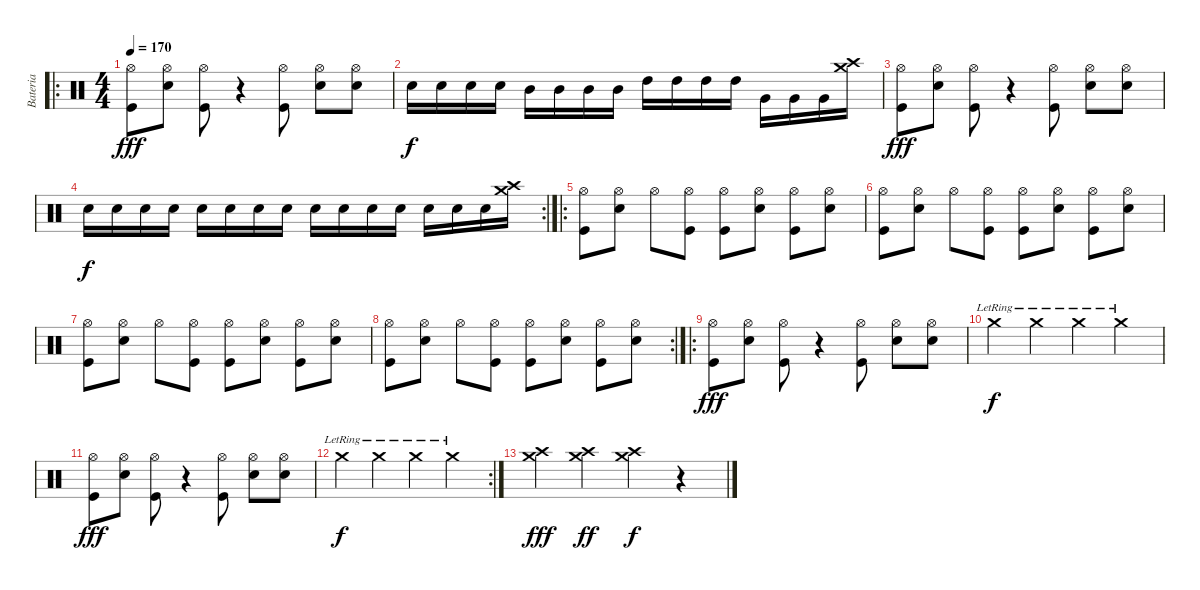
\track ("Bateria" "Bateria") {instrument percussion}
\staff {score}
\articulation defaults
\ro
\ts (4 4)
\tempo 170
\clef neutral
\ks c
("Hi-Hat (open)" "Kick (hit)").8{dy fff} ("Hi-Hat (open)" "Electric Snare (hit)").8 ("Hi-Hat (open)" "Kick (hit)").8 r.4 ("Hi-Hat (open)" "Kick (hit)").8 ("Hi-Hat (open)" "Electric Snare (hit)").8 ("Hi-Hat (open)" "Electric Snare (hit)").8 |
"Electric Snare (hit)".16{dy f} "Electric Snare (hit)".16 "Electric Snare (hit)".16 "Electric Snare (hit)".16 "Mid Tom (hit)".16 "Mid Tom (hit)".16 "Mid Tom (hit)".16 "Mid Tom (hit)".16 "High Tom (hit)".16 "High Tom (hit)".16 "High Tom (hit)".16 "High Tom (hit)".16 "Very Low Tom (hit)".16 "Very Low Tom (hit)".16 "Very Low Tom (hit)".16 ("Crash medium (hit)" "Crash high (hit)").16 |
("Hi-Hat (open)" "Kick (hit)").8{dy fff} ("Hi-Hat (open)" "Electric Snare (hit)").8 ("Hi-Hat (open)" "Kick (hit)").8 r.4 ("Hi-Hat (open)" "Kick (hit)").8 ("Hi-Hat (open)" "Electric Snare (hit)").8 ("Hi-Hat (open)" "Electric Snare (hit)").8 |
\rc 2 "Electric Snare (hit)".16{dy f} "Electric Snare (hit)".16 "Electric Snare (hit)".16 "Electric Snare (hit)".16 "Electric Snare (hit)".16 "Electric Snare (hit)".16 "Electric Snare (hit)".16 "Electric Snare (hit)".16 "Electric Snare (hit)".16 "Electric Snare (hit)".16 "Electric Snare (hit)".16 "Electric Snare (hit)".16 "Electric Snare (hit)".16 "Electric Snare (hit)".16 "Electric Snare (hit)".16
("Crash medium (hit)" "Crash high (hit)").16 |
\ro
("Hi-Hat (open)" "Kick (hit)").8 ("Hi-Hat (open)" "Electric Snare (hit)").8 "Hi-Hat (open)".8 ("Hi-Hat (open)" "Kick (hit)").8 ("Hi-Hat (open)" "Kick (hit)").8 ("Hi-Hat (open)" "Electric Snare (hit)").8 ("Hi-Hat (open)" "Kick (hit)").8 ("Hi-Hat (open)" "Electric Snare (hit)").8 |
("Hi-Hat (open)" "Kick (hit)").8 ("Hi-Hat (open)" "Electric Snare (hit)").8 "Hi-Hat (open)".8 ("Hi-Hat (open)" "Kick (hit)").8 ("Hi-Hat (open)" "Kick (hit)").8 ("Hi-Hat (open)" "Electric Snare (hit)").8 ("Hi-Hat (open)" "Kick (hit)").8 ("Hi-Hat (open)" "Electric Snare (hit)").8 |
("Hi-Hat (open)" "Kick (hit)").8 ("Hi-Hat (open)" "Electric Snare (hit)").8 "Hi-Hat (open)".8 ("Hi-Hat (open)" "Kick (hit)").8 ("Hi-Hat (open)" "Kick (hit)").8 ("Hi-Hat (open)" "Electric Snare (hit)").8 ("Hi-Hat (open)" "Kick (hit)").8 ("Hi-Hat (open)" "Electric Snare (hit)").8 |
\rc 2
("Hi-Hat (open)" "Kick (hit)").8 ("Hi-Hat (open)" "Electric Snare (hit)").8 "Hi-Hat (open)".8 ("Hi-Hat (open)" "Kick (hit)").8 ("Hi-Hat (open)" "Kick (hit)").8 ("Hi-Hat (open)" "Electric Snare (hit)").8 ("Hi-Hat (open)" "Kick (hit)").8 ("Hi-Hat (open)" "Electric Snare (hit)").8 |
\ro
("Hi-Hat (open)" "Kick (hit)").8{dy fff} ("Hi-Hat (open)" "Electric Snare (hit)").8 ("Hi-Hat (open)" "Kick (hit)").8 r.4 ("Hi-Hat (open)" "Kick (hit)").8 ("Hi-Hat (open)" "Electric Snare (hit)").8 ("Hi-Hat (open)" "Electric Snare (hit)").8 |
"Crash medium (hit)"{lr}.4{dy f} "Crash medium (hit)"{lr}.4 "Crash medium (hit)"{lr}.4 "Crash medium (hit)"{lr}.4 |
("Hi-Hat (open)" "Kick (hit)").8{dy fff} ("Hi-Hat (open)" "Electric Snare (hit)").8 ("Hi-Hat (open)" "Kick (hit)").8 r.4 ("Hi-Hat (open)" "Kick (hit)").8 ("Hi-Hat (open)" "Electric Snare (hit)").8 ("Hi-Hat (open)" "Electric Snare (hit)").8 |
\rc 2 "Crash medium (hit)"{lr}.4{dy f} "Crash medium (hit)"{lr}.4 "Crash medium (hit)"{lr}.4 "Crash medium (hit)"{lr}.4
|
("Crash medium (hit)" "Crash high (hit)").4{dy fff} ("Crash medium (hit)" "Crash high (hit)").4{dy ff} ("Crash medium (hit)" "Crash high (hit)").4{dy f} r.4
